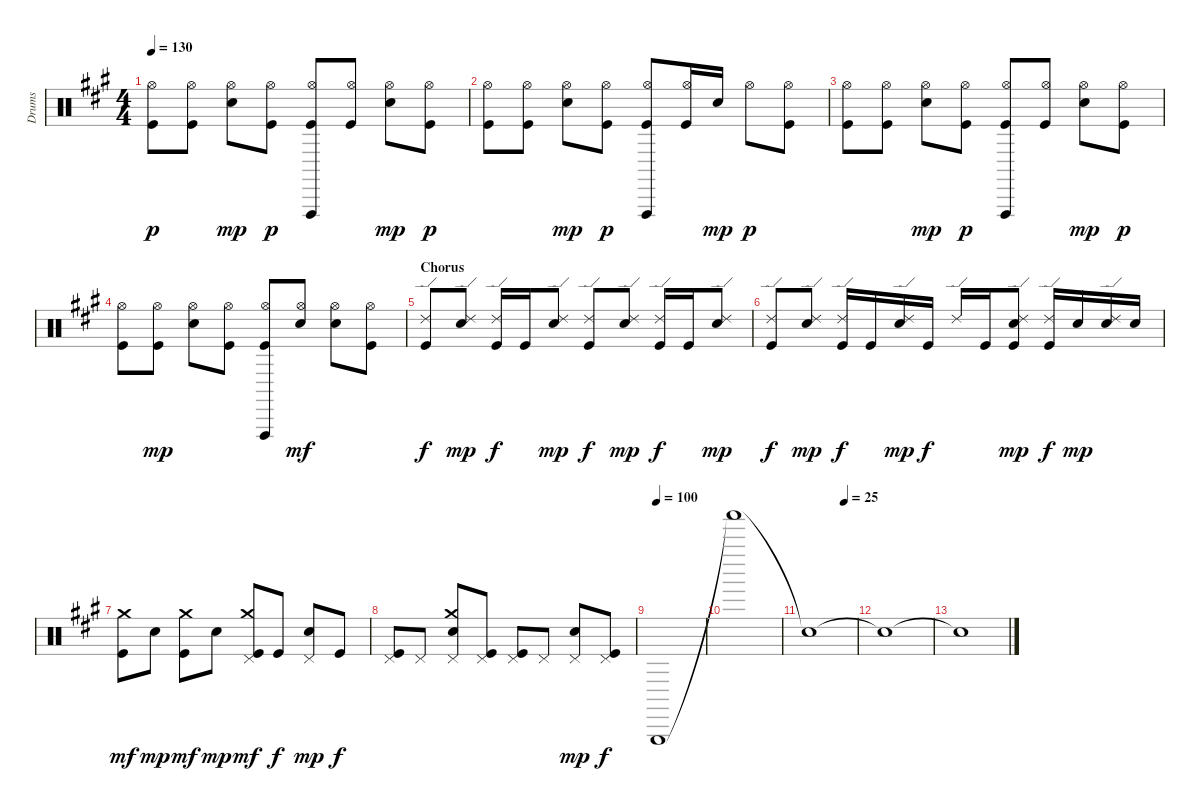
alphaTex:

\track ("Drums" "Drums") {instrument percussion}
\staff {score}
\articulation defaults
\ts (4 4)
\tempo 130
\clef neutral
\ks a
("Hi-Hat (open)" "Kick (hit)").8{dy p} ("Hi-Hat (open)" "Kick (hit)").8 ("Hi-Hat (open)" "Electric Snare (hit)").8{dy mp} ("Hi-Hat (open)" "Kick (hit)").8{dy p} ("Hi-Hat (open)" "Vibraslap (hit)" "Kick (hit)").8 ("Hi-Hat (open)" "Kick (hit)").8 ("Hi-Hat (open)" "Electric Snare (hit)").8{dy mp} ("Hi-Hat (open)" "Kick (hit)").8{dy p} |
("Hi-Hat (open)" "Kick (hit)").8 ("Hi-Hat (open)" "Kick (hit)").8 ("Hi-Hat (open)" "Electric Snare (hit)").8{dy mp} ("Hi-Hat (open)" "Kick (hit)").8{dy p} ("Hi-Hat (open)" "Vibraslap (hit)" "Kick (hit)").8 ("Hi-Hat (open)" "Kick (hit)").16 "Electric Snare (hit)".16{dy mp} "Hi-Hat (open)".8{dy p} ("Hi-Hat (open)" "Kick (hit)").8 |
("Hi-Hat (open)" "Kick (hit)").8 ("Hi-Hat (open)" "Kick (hit)").8 ("Hi-Hat (open)" "Electric Snare (hit)").8{dy mp} ("Hi-Hat (open)" "Kick (hit)").8{dy p} ("Hi-Hat (open)" "Vibraslap (hit)" "Kick (hit)").8 ("Hi-Hat (open)" "Kick (hit)").8 ("Hi-Hat (open)" "Electric Snare (hit)").8{dy mp} ("Hi-Hat (open)" "Kick (hit)").8{dy p} |
("Hi-Hat (open)" "Kick (hit)").8 ("Hi-Hat (open)" "Kick (hit)").8{dy mp} ("Hi-Hat (open)" "Electric Snare (hit)").8 ("Hi-Hat (open)" "Kick (hit)").8 ("Hi-Hat (open)" "Vibraslap (hit)" "Kick (hit)").8 ("Hi-Hat (open)" "Electric Snare (hit)").8{dy mf} ("Hi-Hat (open)" "Electric Snare (hit)").8 ("Hi-Hat (open)" "Kick (hit)").8 |
\section ("" "Chorus")
("Ride (edge) 2" "Kick (hit)").8{dy f} ("Ride (edge) 2" "Electric Snare (hit)").8{dy mp} ("Ride (edge) 2" "Kick (hit)").16{dy f} "Kick (hit)".16 ("Ride (edge) 2" "Electric Snare (hit)").8{dy mp} ("Ride (edge) 2" "Kick (hit)").8{dy f} ("Ride (edge) 2" "Electric Snare (hit)").8{dy mp} ("Ride (edge) 2" "Kick (hit)").16{dy f} "Kick (hit)".16 ("Ride (edge) 2" "Electric Snare (hit)").8{dy mp} |
("Ride (edge) 2" "Kick (hit)").8{dy f} ("Ride (edge) 2" "Electric Snare (hit)").8{dy mp} ("Ride (edge) 2" "Kick (hit)").16{dy f} "Kick (hit)".16 ("Ride (edge) 2" "Electric Snare (hit)").16{dy mp} "Kick (hit)".16{dy f} "Ride (edge) 2".16 "Kick (hit)".16 ("Ride (edge) 2" "Electric Snare (hit)" "Kick (hit)").8{dy mp} ("Ride (edge) 2" "Kick (hit)").16{dy f} "Electric Snare (hit)".16{dy mp} ("Ride (edge) 2" "Electric Snare (hit)").16 "Electric Snare (hit)".16 |
("Crash medium (hit)" "Kick (hit)").8{dy mf} "Electric Snare (hit)".8{dy mp} ("Crash medium (hit)" "Kick (hit)").8{dy mf} "Electric Snare (hit)".8{dy mp} ("Crash medium (hit)" "Pedal Hi-Hat (hit)" "Kick (hit)").8{dy mf} "Kick (hit)".8{dy f} ("Pedal Hi-Hat (hit)" "Electric Snare (hit)").8{dy mp} "Kick (hit)".8{dy f} |
("Pedal Hi-Hat (hit)" "Kick (hit)").8 "Pedal Hi-Hat (hit)".8 ("Crash medium (hit)" "Pedal Hi-Hat (hit)" "Electric Snare (hit)").8 ("Pedal Hi-Hat (hit)" "Kick (hit)").8 ("Pedal Hi-Hat (hit)" "Kick (hit)").8 "Pedal Hi-Hat (hit)".8 ("Pedal Hi-Hat (hit)" "Electric Snare (hit)").8{dy mp} ("Pedal Hi-Hat (hit)" "Kick (hit)").8{dy f} |
\tempo (100)
"Triangle (hit)".1 |
"Shaker (hit)"{t}.1 |
\tempo (25 0.75)
"Snare (hit)"{t}.1 |
"Snare (hit)"{t}.1 |
"Snare (hit)"{t}.1{volume 0}
